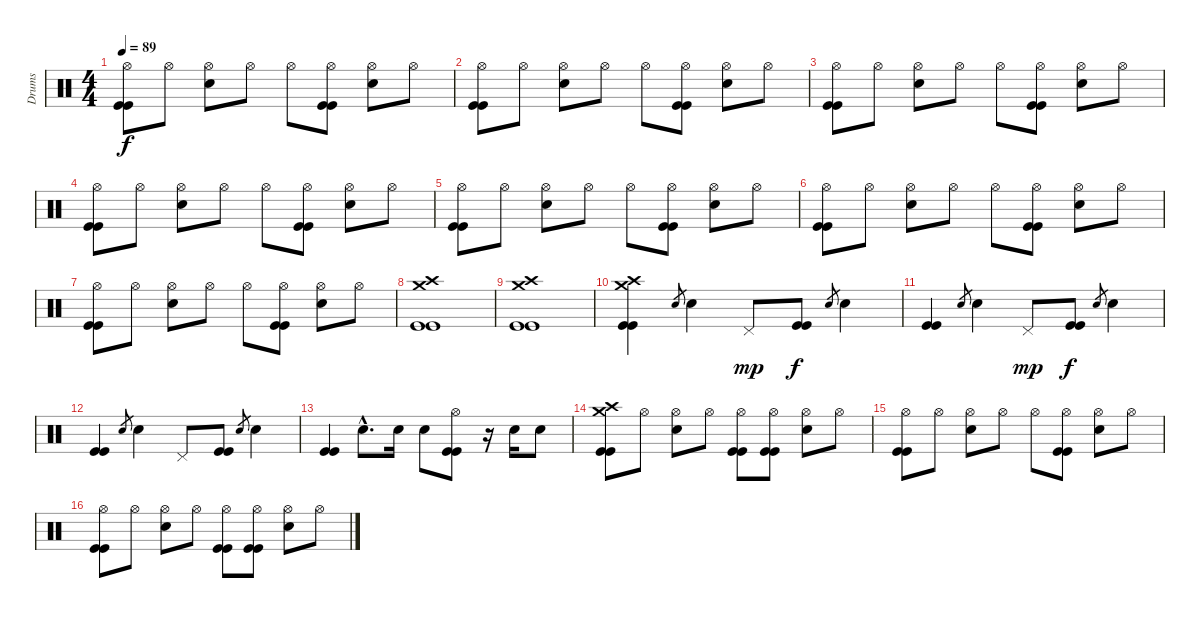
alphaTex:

\track ("Drums" "Drums") {instrument percussion}
\staff {score}
\articulation defaults
\ts (4 4)
\tempo 89
\clef neutral
\ks c
("Hi-Hat (open)" "Kick (hit)" "Kick (hit)").8{dy f} "Hi-Hat (open)".8 ("Hi-Hat (open)" "Electric Snare (hit)").8 "Hi-Hat (open)".8 "Hi-Hat (open)".8 ("Hi-Hat (open)" "Kick (hit)" "Kick (hit)").8 ("Hi-Hat (open)" "Electric Snare (hit)").8 "Hi-Hat (open)".8 |
("Hi-Hat (open)" "Kick (hit)" "Kick (hit)").8 "Hi-Hat (open)".8 ("Hi-Hat (open)" "Electric Snare (hit)").8 "Hi-Hat (open)".8 "Hi-Hat (open)".8 ("Hi-Hat (open)" "Kick (hit)" "Kick (hit)").8 ("Hi-Hat (open)" "Electric Snare (hit)").8 "Hi-Hat (open)".8 |
("Hi-Hat (open)" "Kick (hit)" "Kick (hit)").8 "Hi-Hat (open)".8 ("Hi-Hat (open)" "Electric Snare (hit)").8 "Hi-Hat (open)".8 "Hi-Hat (open)".8 ("Hi-Hat (open)" "Kick (hit)" "Kick (hit)").8 ("Hi-Hat (open)" "Electric Snare (hit)").8 "Hi-Hat (open)".8 |
("Hi-Hat (open)" "Kick (hit)" "Kick (hit)").8 "Hi-Hat (open)".8 ("Hi-Hat (open)" "Electric Snare (hit)").8 "Hi-Hat (open)".8 "Hi-Hat (open)".8 ("Hi-Hat (open)" "Kick (hit)" "Kick (hit)").8 ("Hi-Hat (open)" "Electric Snare (hit)").8 "Hi-Hat (open)".8 |
("Hi-Hat (open)" "Kick (hit)" "Kick (hit)").8 "Hi-Hat (open)".8 ("Hi-Hat (open)" "Electric Snare (hit)").8 "Hi-Hat (open)".8 "Hi-Hat (open)".8 ("Hi-Hat (open)" "Kick (hit)" "Kick (hit)").8 ("Hi-Hat (open)" "Electric Snare (hit)").8 "Hi-Hat (open)".8 |
("Hi-Hat (open)" "Kick (hit)" "Kick (hit)").8 "Hi-Hat (open)".8 ("Hi-Hat (open)" "Electric Snare (hit)").8 "Hi-Hat (open)".8 "Hi-Hat (open)".8 ("Hi-Hat (open)" "Kick (hit)" "Kick (hit)").8 ("Hi-Hat (open)" "Electric Snare (hit)").8 "Hi-Hat (open)".8 |
("Hi-Hat (open)" "Kick (hit)" "Kick (hit)").8 "Hi-Hat (open)".8 ("Hi-Hat (open)" "Electric Snare (hit)").8 "Hi-Hat (open)".8 "Hi-Hat (open)".8 ("Hi-Hat (open)" "Kick (hit)" "Kick (hit)").8 ("Hi-Hat (open)" "Electric Snare (hit)").8 "Hi-Hat (open)".8 |
("Crash medium (hit)" "Crash high (hit)" "Kick (hit)" "Kick (hit)").1 |
("Crash medium (hit)" "Crash high (hit)" "Kick (hit)" "Kick (hit)").1 |
("Crash high (hit)" "Crash medium (hit)" "Kick (hit)" "Kick (hit)").4 "Electric Snare (hit)".8{gr} "Electric Snare (hit)".4 "Pedal Hi-Hat (hit)".8{dy mp} ("Kick (hit)" "Kick (hit)").8{dy f} "Electric Snare (hit)".8{gr} "Electric Snare (hit)".4 |
("Kick (hit)" "Kick (hit)").4 "Electric Snare (hit)".8{gr} "Electric Snare (hit)".4 "Pedal Hi-Hat (hit)".8{dy mp} ("Kick (hit)" "Kick (hit)").8{dy f} "Electric Snare (hit)".8{gr} "Electric Snare (hit)".4 |
("Kick (hit)" "Kick (hit)").4 "Electric Snare (hit)".8{gr} "Electric Snare (hit)".4 "Pedal Hi-Hat (hit)".8 ("Kick (hit)" "Kick (hit)").8 "Electric Snare (hit)".8{gr} "Electric Snare (hit)".4 |
("Kick (hit)" "Kick (hit)").4 "Electric Snare (hit)"{hac}.8{d} "Electric Snare (hit)".16 "Electric Snare (hit)".8 ("Hi-Hat (open)" "Kick (hit)" "Kick (hit)").8 r.16 "Electric Snare (hit)".16 "Electric Snare (hit)".8 |
("Crash medium (hit)" "Crash high (hit)" "Kick (hit)" "Kick (hit)").8 "Hi-Hat (open)".8 ("Hi-Hat (open)" "Electric Snare (hit)").8 "Hi-Hat (open)".8 ("Hi-Hat (open)" "Kick (hit)" "Kick (hit)").8 ("Hi-Hat (open)" "Kick (hit)" "Kick (hit)").8 ("Hi-Hat (open)" "Electric Snare (hit)").8 "Hi-Hat (open)".8 |
("Hi-Hat (open)" "Kick (hit)" "Kick (hit)").8 "Hi-Hat (open)".8 ("Hi-Hat (open)" "Electric Snare (hit)").8 "Hi-Hat (open)".8 "Hi-Hat (open)".8 ("Hi-Hat (open)" "Kick (hit)" "Kick (hit)").8 ("Hi-Hat (open)" "Electric Snare (hit)").8 "Hi-Hat (open)".8 |
("Hi-Hat (open)" "Kick (hit)" "Kick (hit)").8 "Hi-Hat (open)".8 ("Hi-Hat (open)" "Electric Snare (hit)").8 "Hi-Hat (open)".8 ("Hi-Hat (open)" "Kick (hit)" "Kick (hit)").8 ("Hi-Hat (open)" "Kick (hit)" "Kick (hit)").8 ("Hi-Hat (open)" "Electric Snare (hit)").8 "Hi-Hat (open)".8
